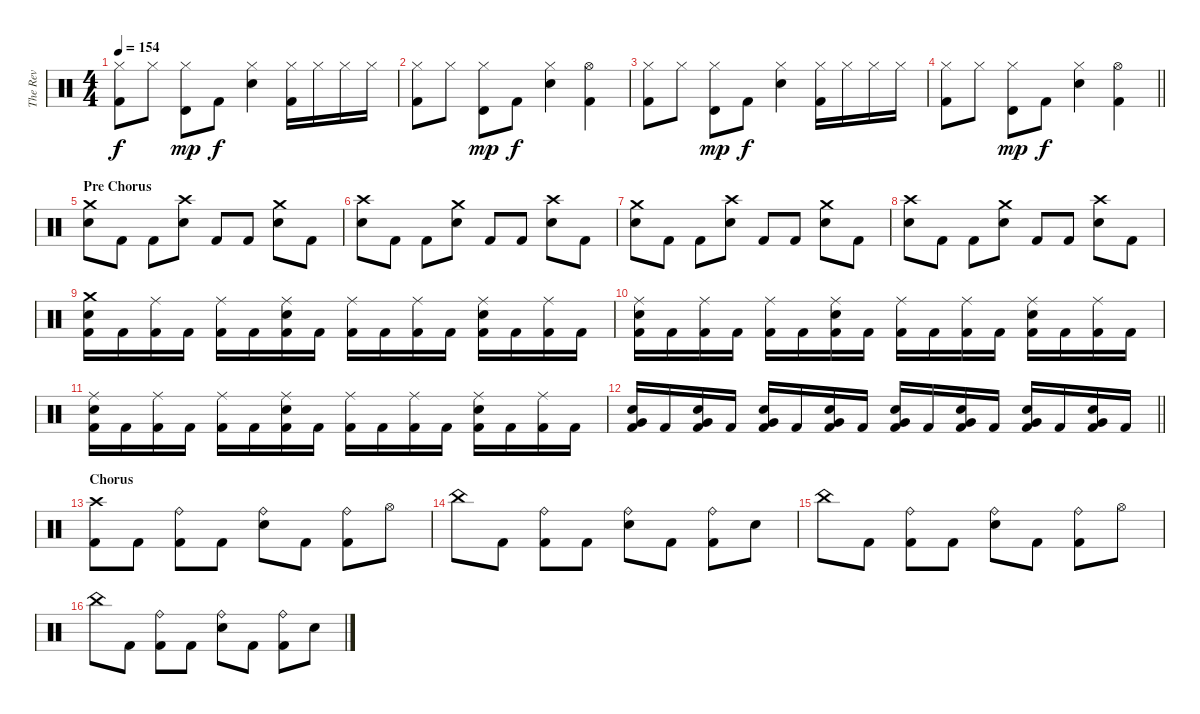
\track ("The Rev" "The Rev") {instrument percussion}
\staff {score}
\articulation defaults
\ts (4 4)
\tempo 154
\clef neutral
\ks c
("Hi-Hat (closed)" "Kick (hit) 2").8{dy f} "Hi-Hat (closed)".8 ("Hi-Hat (closed)" "Timbale high (hit)").8{dy mp} "Kick (hit) 2".8{dy f} ("Hi-Hat (closed)" "Snare (hit) 2").4 ("Hi-Hat (closed)" "Kick (hit) 2").16 "Hi-Hat (closed)".16 "Hi-Hat (closed)".16 "Hi-Hat (closed)".16 |
("Hi-Hat (closed)" "Kick (hit) 2").8 "Hi-Hat (closed)".8 ("Hi-Hat (closed)" "Timbale high (hit)").8{dy mp} "Kick (hit) 2".8{dy f} ("Hi-Hat (closed)" "Snare (hit) 2").4 ("Hi-Hat (open)" "Kick (hit) 2").4 |
("Hi-Hat (closed)" "Kick (hit) 2").8 "Hi-Hat (closed)".8 ("Hi-Hat (closed)" "Timbale high (hit)").8{dy mp} "Kick (hit) 2".8{dy f} ("Hi-Hat (closed)" "Snare (hit) 2").4 ("Hi-Hat (closed)" "Kick (hit) 2").16 "Hi-Hat (closed)".16 "Hi-Hat (closed)".16 "Hi-Hat (closed)".16 |
\barLineRight lightlight
("Hi-Hat (closed)" "Kick (hit) 2").8 "Hi-Hat (closed)".8 ("Hi-Hat (closed)" "Timbale high (hit)").8{dy mp} "Kick (hit) 2".8{dy f} ("Hi-Hat (closed)" "Snare (hit) 2").4 ("Hi-Hat (open)" "Kick (hit) 2").4 |
\section ("" "Pre Chorus")
("Crash medium (hit)" "Snare (hit) 2").8 "Kick (hit) 2".8 "Kick (hit) 2".8 ("Crash high (hit)" "Snare (hit) 2").8 "Kick (hit) 2".8 "Kick (hit) 2".8 ("Crash medium (hit)" "Snare (hit) 2").8 "Kick (hit) 2".8 |
("Crash high (hit)" "Snare (hit) 2").8 "Kick (hit) 2".8 "Kick (hit) 2".8 ("Crash medium (hit)" "Snare (hit) 2").8 "Kick (hit) 2".8 "Kick (hit) 2".8 ("Crash high (hit)" "Snare (hit) 2").8 "Kick (hit) 2".8 |
("Crash medium (hit)" "Snare (hit) 2").8 "Kick (hit) 2".8 "Kick (hit) 2".8 ("Crash high (hit)" "Snare (hit) 2").8 "Kick (hit) 2".8 "Kick (hit) 2".8 ("Crash medium (hit)" "Snare (hit) 2").8 "Kick (hit) 2".8 |
("Crash high (hit)" "Snare (hit) 2").8 "Kick (hit) 2".8 "Kick (hit) 2".8 ("Crash medium (hit)" "Snare (hit) 2").8 "Kick (hit) 2".8 "Kick (hit) 2".8 ("Crash high (hit)" "Snare (hit) 2").8 "Kick (hit) 2".8 |
("Crash medium (hit)" "Snare (hit) 2" "Kick (hit) 2").16 "Kick (hit) 2".16 ("Ride (middle)" "Kick (hit) 2").16 "Kick (hit) 2".16 ("Ride (middle)" "Kick (hit) 2").16 "Kick (hit) 2".16 ("Ride (middle)" "Snare (hit) 2" "Kick (hit) 2").16 "Kick (hit) 2".16 ("Ride (middle)" "Kick (hit) 2").16 "Kick (hit) 2".16 ("Ride (middle)" "Kick (hit) 2").16 "Kick (hit) 2".16 ("Ride (middle)" "Snare (hit) 2" "Kick (hit) 2").16 "Kick (hit) 2".16 ("Ride (middle)" "Kick (hit) 2").16 "Kick (hit) 2".16 |
("Ride (middle)" "Snare (hit) 2" "Kick (hit) 2").16 "Kick (hit) 2".16 ("Ride (middle)" "Kick (hit) 2").16 "Kick (hit) 2".16 ("Ride (middle)" "Kick (hit) 2").16 "Kick (hit) 2".16 ("Ride (middle)" "Snare (hit) 2" "Kick (hit) 2").16 "Kick (hit) 2".16 ("Ride (middle)" "Kick (hit) 2").16 "Kick (hit) 2".16 ("Ride (middle)" "Kick (hit) 2").16 "Kick (hit) 2".16 ("Ride (middle)" "Snare (hit) 2" "Kick (hit) 2").16 "Kick (hit) 2".16 ("Ride (middle)" "Kick (hit) 2").16 "Kick (hit) 2".16 |
("Ride (middle)" "Snare (hit) 2" "Kick (hit) 2").16 "Kick (hit) 2".16 ("Ride (middle)" "Kick (hit) 2").16 "Kick (hit) 2".16 ("Ride (middle)" "Kick (hit) 2").16 "Kick (hit) 2".16 ("Ride (middle)" "Snare (hit) 2" "Kick (hit) 2").16 "Kick (hit) 2".16 ("Ride (middle)" "Kick (hit) 2").16 "Kick (hit) 2".16 ("Ride (middle)" "Kick (hit) 2").16 "Kick (hit) 2".16 ("Ride (middle)" "Snare (hit) 2" "Kick (hit) 2").16 "Kick (hit) 2".16 ("Ride (middle)" "Kick (hit) 2").16 "Kick (hit) 2".16 |
\barLineRight lightlight
("Snare (hit) 2" "Very Low Tom (hit)" "Kick (hit) 2").16 "Kick (hit) 2".16 ("Snare (hit) 2" "Very Low Tom (hit)" "Kick (hit) 2").16 "Kick (hit) 2".16 ("Snare (hit) 2" "Very Low Tom (hit)" "Kick (hit) 2").16 "Kick (hit) 2".16 ("Snare (hit) 2" "Very Low Tom (hit)" "Kick (hit) 2").16 "Kick (hit) 2".16 ("Snare (hit) 2" "Very Low Tom (hit)" "Kick (hit) 2").16 "Kick (hit) 2".16 ("Snare (hit) 2" "Very Low Tom (hit)" "Kick (hit) 2").16 "Kick (hit) 2".16 ("Snare (hit) 2" "Very Low Tom (hit)" "Kick (hit) 2").16 "Kick (hit) 2".16 ("Snare (hit) 2" "Very Low Tom (hit)" "Kick (hit) 2").16 "Kick (hit) 2".16 |
\section ("" "Chorus")
("Crash high (hit)" "Kick (hit) 2").8 "Kick (hit) 2".8 ("Ride (bell)" "Kick (hit) 2").8 "Kick (hit) 2".8 ("Ride (bell)" "Snare (hit) 2").8 "Kick (hit) 2".8 ("Ride (bell)" "Kick (hit) 2").8 "Hi-Hat (open)".8 |
"China (hit)".8 "Kick (hit) 2".8 ("Ride (bell)" "Kick (hit) 2").8 "Kick (hit) 2".8 ("Ride (bell)" "Snare (hit) 2").8 "Kick (hit) 2".8 ("Ride (bell)" "Kick (hit) 2").8 "Snare (hit) 2".8 |
"China (hit)".8 "Kick (hit) 2".8 ("Ride (bell)" "Kick (hit) 2").8 "Kick (hit) 2".8 ("Ride (bell)" "Snare (hit) 2").8 "Kick (hit) 2".8 ("Ride (bell)" "Kick (hit) 2").8 "Hi-Hat (open)".8 |
"China (hit)".8 "Kick (hit) 2".8 ("Ride (bell)" "Kick (hit) 2").8 "Kick (hit) 2".8 ("Ride (bell)" "Snare (hit) 2").8 "Kick (hit) 2".8 ("Ride (bell)" "Kick (hit) 2").8 "Snare (hit) 2".8
